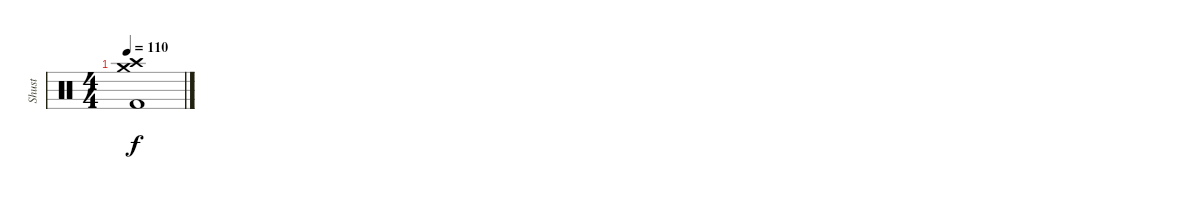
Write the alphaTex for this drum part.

\track ("Shust" "Shust") {instrument percussion}
\staff {score}
\articulation defaults
\ts (4 4)
\tempo 110
\clef neutral
\ks c
("Crash medium (hit)" "Crash high (hit)" "Kick (hit) 2").1{dy f}
